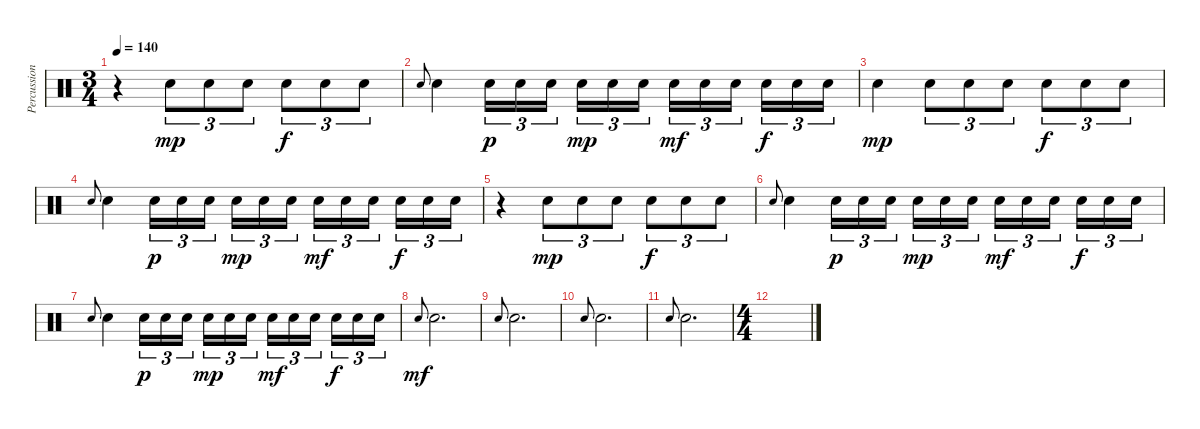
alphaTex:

\track ("Percussion" "Percussion") {instrument percussion}
\staff {score}
\articulation defaults
\ts (3 4)
\tempo 140
\clef neutral
\ks c
r.4{dy f} "Snare (hit) 2".8{tu (3 2) dy mp} "Snare (hit) 2".8{tu (3 2)} "Snare (hit) 2".8{tu (3 2)} "Snare (hit) 2".8{tu (3 2) dy f} "Snare (hit) 2".8{tu (3 2)} "Snare (hit) 2".8{tu (3 2)} |
"Snare (hit) 2".8{gr onbeat} "Snare (hit) 2".4 "Snare (hit) 2".16{tu (3 2) dy p} "Snare (hit) 2".16{tu (3 2)} "Snare (hit) 2".16{tu (3 2) beam splitsecondary} "Snare (hit) 2".16{tu (3 2) dy mp} "Snare (hit) 2".16{tu (3 2)} "Snare (hit) 2".16{tu (3 2)} "Snare (hit) 2".16{tu (3 2) dy mf} "Snare (hit) 2".16{tu (3 2)} "Snare (hit) 2".16{tu (3 2) beam splitsecondary} "Snare (hit) 2".16{tu (3 2) dy f} "Snare (hit) 2".16{tu (3 2)} "Snare (hit) 2".16{tu (3 2)} |
"Snare (hit) 2".4{dy mp} "Snare (hit) 2".8{tu (3 2)} "Snare (hit) 2".8{tu (3 2)} "Snare (hit) 2".8{tu (3 2)} "Snare (hit) 2".8{tu (3 2) dy f} "Snare (hit) 2".8{tu (3 2)} "Snare (hit) 2".8{tu (3 2)} |
"Snare (hit) 2".8{gr onbeat} "Snare (hit) 2".4 "Snare (hit) 2".16{tu (3 2) dy p} "Snare (hit) 2".16{tu (3 2)} "Snare (hit) 2".16{tu (3 2) beam splitsecondary} "Snare (hit) 2".16{tu (3 2) dy mp} "Snare (hit) 2".16{tu (3 2)} "Snare (hit) 2".16{tu (3 2)} "Snare (hit) 2".16{tu (3 2) dy mf} "Snare (hit) 2".16{tu (3 2)} "Snare (hit) 2".16{tu (3 2) beam splitsecondary} "Snare (hit) 2".16{tu (3 2) dy f} "Snare (hit) 2".16{tu (3 2)} "Snare (hit) 2".16{tu (3 2)} |
r.4 "Snare (hit) 2".8{tu (3 2) dy mp} "Snare (hit) 2".8{tu (3 2)} "Snare (hit) 2".8{tu (3 2)} "Snare (hit) 2".8{tu (3 2) dy f} "Snare (hit) 2".8{tu (3 2)} "Snare (hit) 2".8{tu (3 2)} |
"Snare (hit) 2".8{gr onbeat} "Snare (hit) 2".4 "Snare (hit) 2".16{tu (3 2) dy p} "Snare (hit) 2".16{tu (3 2)} "Snare (hit) 2".16{tu (3 2) beam splitsecondary} "Snare (hit) 2".16{tu (3 2) dy mp} "Snare (hit) 2".16{tu (3 2)} "Snare (hit) 2".16{tu (3 2)} "Snare (hit) 2".16{tu (3 2) dy mf} "Snare (hit) 2".16{tu (3 2)} "Snare (hit) 2".16{tu (3 2) beam splitsecondary} "Snare (hit) 2".16{tu (3 2) dy f} "Snare (hit) 2".16{tu (3 2)} "Snare (hit) 2".16{tu (3 2)} |
"Snare (hit) 2".8{gr onbeat} "Snare (hit) 2".4 "Snare (hit) 2".16{tu (3 2) dy p} "Snare (hit) 2".16{tu (3 2)} "Snare (hit) 2".16{tu (3 2) beam splitsecondary} "Snare (hit) 2".16{tu (3 2) dy mp} "Snare (hit) 2".16{tu (3 2)} "Snare (hit) 2".16{tu (3 2)} "Snare (hit) 2".16{tu (3 2) dy mf} "Snare (hit) 2".16{tu (3 2)} "Snare (hit) 2".16{tu (3 2) beam splitsecondary} "Snare (hit) 2".16{tu (3 2) dy f} "Snare (hit) 2".16{tu (3 2)} "Snare (hit) 2".16{tu (3 2)} |
"Snare (hit) 2".8{gr onbeat dy mf} "Snare (hit) 2".2{d} |
"Snare (hit) 2".8{gr onbeat} "Snare (hit) 2".2{d} |
"Snare (hit) 2".8{gr onbeat} "Snare (hit) 2".2{d} |
"Snare (hit) 2".8{gr onbeat} "Snare (hit) 2".2{d} |
\ts (4 4)
